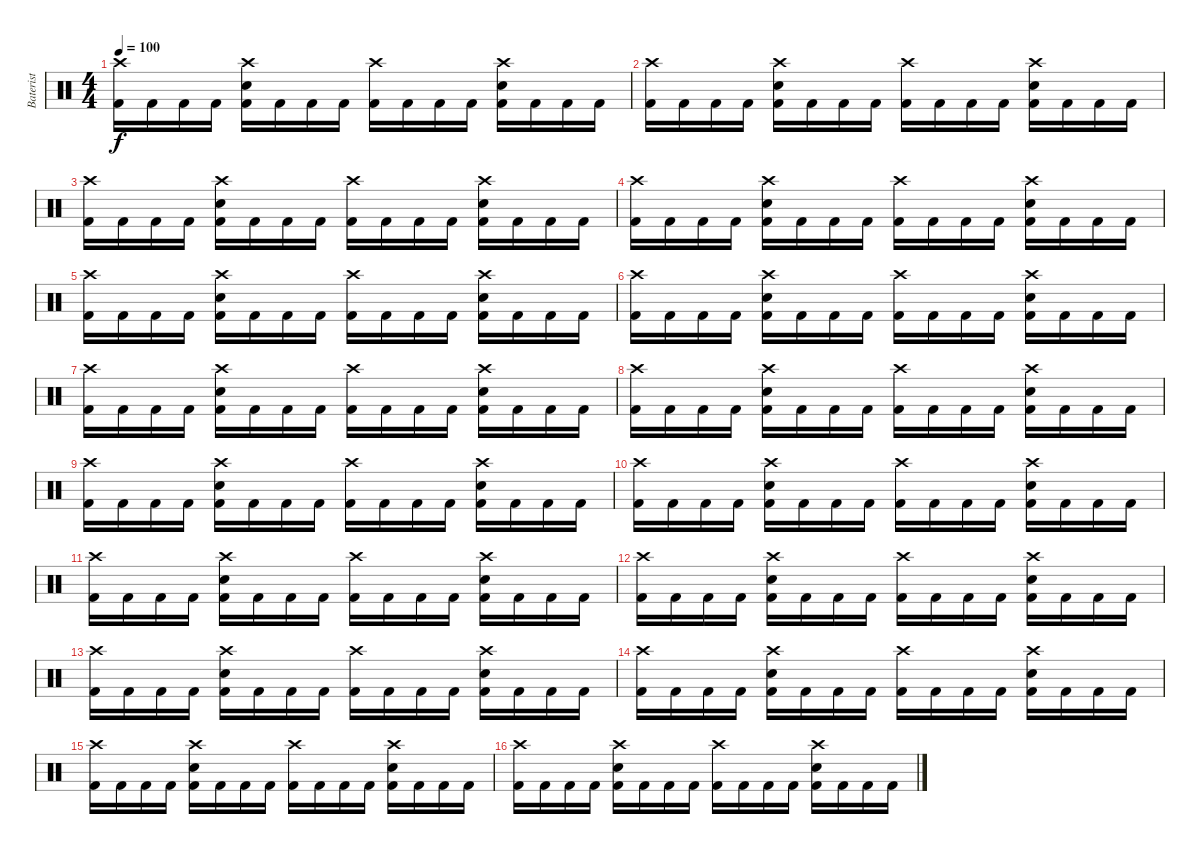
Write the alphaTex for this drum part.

\track ("Baterist" "Baterist") {instrument percussion}
\staff {score}
\articulation defaults
\ts (4 4)
\tempo 100
\clef neutral
\ks c
("Crash high (hit)" "Kick (hit) 2").16{dy f} "Kick (hit) 2".16 "Kick (hit) 2".16 "Kick (hit) 2".16 ("Crash high (hit)" "Electric Snare (hit)" "Kick (hit) 2").16 "Kick (hit) 2".16 "Kick (hit) 2".16 "Kick (hit) 2".16 ("Crash high (hit)" "Kick (hit) 2").16 "Kick (hit) 2".16 "Kick (hit) 2".16 "Kick (hit) 2".16 ("Crash high (hit)" "Electric Snare (hit)" "Kick (hit) 2").16 "Kick (hit) 2".16 "Kick (hit) 2".16 "Kick (hit) 2".16 |
("Crash high (hit)" "Kick (hit) 2").16 "Kick (hit) 2".16 "Kick (hit) 2".16 "Kick (hit) 2".16 ("Crash high (hit)" "Electric Snare (hit)" "Kick (hit) 2").16 "Kick (hit) 2".16 "Kick (hit) 2".16 "Kick (hit) 2".16 ("Crash high (hit)" "Kick (hit) 2").16 "Kick (hit) 2".16 "Kick (hit) 2".16 "Kick (hit) 2".16 ("Crash high (hit)" "Electric Snare (hit)" "Kick (hit) 2").16 "Kick (hit) 2".16 "Kick (hit) 2".16 "Kick (hit) 2".16 |
("Crash high (hit)" "Kick (hit) 2").16 "Kick (hit) 2".16 "Kick (hit) 2".16 "Kick (hit) 2".16 ("Crash high (hit)" "Electric Snare (hit)" "Kick (hit) 2").16 "Kick (hit) 2".16 "Kick (hit) 2".16 "Kick (hit) 2".16 ("Crash high (hit)" "Kick (hit) 2").16 "Kick (hit) 2".16 "Kick (hit) 2".16 "Kick (hit) 2".16 ("Crash high (hit)" "Electric Snare (hit)" "Kick (hit) 2").16 "Kick (hit) 2".16 "Kick (hit) 2".16 "Kick (hit) 2".16 |
("Crash high (hit)" "Kick (hit) 2").16 "Kick (hit) 2".16 "Kick (hit) 2".16 "Kick (hit) 2".16 ("Crash high (hit)" "Electric Snare (hit)" "Kick (hit) 2").16 "Kick (hit) 2".16 "Kick (hit) 2".16 "Kick (hit) 2".16 ("Crash high (hit)" "Kick (hit) 2").16 "Kick (hit) 2".16 "Kick (hit) 2".16 "Kick (hit) 2".16 ("Crash high (hit)" "Electric Snare (hit)" "Kick (hit) 2").16 "Kick (hit) 2".16 "Kick (hit) 2".16 "Kick (hit) 2".16 |
("Crash high (hit)" "Kick (hit) 2").16 "Kick (hit) 2".16 "Kick (hit) 2".16 "Kick (hit) 2".16 ("Crash high (hit)" "Electric Snare (hit)" "Kick (hit) 2").16 "Kick (hit) 2".16 "Kick (hit) 2".16 "Kick (hit) 2".16 ("Crash high (hit)" "Kick (hit) 2").16 "Kick (hit) 2".16 "Kick (hit) 2".16 "Kick (hit) 2".16 ("Crash high (hit)" "Electric Snare (hit)" "Kick (hit) 2").16 "Kick (hit) 2".16 "Kick (hit) 2".16 "Kick (hit) 2".16 |
("Crash high (hit)" "Kick (hit) 2").16 "Kick (hit) 2".16 "Kick (hit) 2".16 "Kick (hit) 2".16 ("Crash high (hit)" "Electric Snare (hit)" "Kick (hit) 2").16 "Kick (hit) 2".16 "Kick (hit) 2".16 "Kick (hit) 2".16 ("Crash high (hit)" "Kick (hit) 2").16 "Kick (hit) 2".16 "Kick (hit) 2".16 "Kick (hit) 2".16 ("Crash high (hit)" "Electric Snare (hit)" "Kick (hit) 2").16 "Kick (hit) 2".16 "Kick (hit) 2".16 "Kick (hit) 2".16 |
("Crash high (hit)" "Kick (hit) 2").16 "Kick (hit) 2".16 "Kick (hit) 2".16 "Kick (hit) 2".16 ("Crash high (hit)" "Electric Snare (hit)" "Kick (hit) 2").16 "Kick (hit) 2".16 "Kick (hit) 2".16 "Kick (hit) 2".16 ("Crash high (hit)" "Kick (hit) 2").16 "Kick (hit) 2".16 "Kick (hit) 2".16 "Kick (hit) 2".16 ("Crash high (hit)" "Electric Snare (hit)" "Kick (hit) 2").16 "Kick (hit) 2".16 "Kick (hit) 2".16 "Kick (hit) 2".16 |
("Crash high (hit)" "Kick (hit) 2").16 "Kick (hit) 2".16 "Kick (hit) 2".16 "Kick (hit) 2".16 ("Crash high (hit)" "Electric Snare (hit)" "Kick (hit) 2").16 "Kick (hit) 2".16 "Kick (hit) 2".16 "Kick (hit) 2".16 ("Crash high (hit)" "Kick (hit) 2").16 "Kick (hit) 2".16 "Kick (hit) 2".16 "Kick (hit) 2".16 ("Crash high (hit)" "Electric Snare (hit)" "Kick (hit) 2").16 "Kick (hit) 2".16 "Kick (hit) 2".16 "Kick (hit) 2".16 |
("Crash high (hit)" "Kick (hit) 2").16 "Kick (hit) 2".16 "Kick (hit) 2".16 "Kick (hit) 2".16 ("Crash high (hit)" "Electric Snare (hit)" "Kick (hit) 2").16 "Kick (hit) 2".16 "Kick (hit) 2".16 "Kick (hit) 2".16 ("Crash high (hit)" "Kick (hit) 2").16 "Kick (hit) 2".16 "Kick (hit) 2".16 "Kick (hit) 2".16 ("Crash high (hit)" "Electric Snare (hit)" "Kick (hit) 2").16 "Kick (hit) 2".16 "Kick (hit) 2".16 "Kick (hit) 2".16 |
("Crash high (hit)" "Kick (hit) 2").16 "Kick (hit) 2".16 "Kick (hit) 2".16 "Kick (hit) 2".16 ("Crash high (hit)" "Electric Snare (hit)" "Kick (hit) 2").16 "Kick (hit) 2".16 "Kick (hit) 2".16 "Kick (hit) 2".16 ("Crash high (hit)" "Kick (hit) 2").16 "Kick (hit) 2".16 "Kick (hit) 2".16 "Kick (hit) 2".16 ("Crash high (hit)" "Electric Snare (hit)" "Kick (hit) 2").16 "Kick (hit) 2".16 "Kick (hit) 2".16 "Kick (hit) 2".16 |
("Crash high (hit)" "Kick (hit) 2").16 "Kick (hit) 2".16 "Kick (hit) 2".16 "Kick (hit) 2".16 ("Crash high (hit)" "Electric Snare (hit)" "Kick (hit) 2").16 "Kick (hit) 2".16 "Kick (hit) 2".16 "Kick (hit) 2".16 ("Crash high (hit)" "Kick (hit) 2").16 "Kick (hit) 2".16 "Kick (hit) 2".16 "Kick (hit) 2".16 ("Crash high (hit)" "Electric Snare (hit)" "Kick (hit) 2").16 "Kick (hit) 2".16 "Kick (hit) 2".16 "Kick (hit) 2".16 |
("Crash high (hit)" "Kick (hit) 2").16 "Kick (hit) 2".16 "Kick (hit) 2".16 "Kick (hit) 2".16 ("Crash high (hit)" "Electric Snare (hit)" "Kick (hit) 2").16 "Kick (hit) 2".16 "Kick (hit) 2".16 "Kick (hit) 2".16 ("Crash high (hit)" "Kick (hit) 2").16 "Kick (hit) 2".16 "Kick (hit) 2".16 "Kick (hit) 2".16 ("Crash high (hit)" "Electric Snare (hit)" "Kick (hit) 2").16 "Kick (hit) 2".16 "Kick (hit) 2".16 "Kick (hit) 2".16 |
("Crash high (hit)" "Kick (hit) 2").16 "Kick (hit) 2".16 "Kick (hit) 2".16 "Kick (hit) 2".16 ("Crash high (hit)" "Electric Snare (hit)" "Kick (hit) 2").16 "Kick (hit) 2".16 "Kick (hit) 2".16 "Kick (hit) 2".16 ("Crash high (hit)" "Kick (hit) 2").16 "Kick (hit) 2".16 "Kick (hit) 2".16 "Kick (hit) 2".16 ("Crash high (hit)" "Electric Snare (hit)" "Kick (hit) 2").16 "Kick (hit) 2".16 "Kick (hit) 2".16 "Kick (hit) 2".16 |
("Crash high (hit)" "Kick (hit) 2").16 "Kick (hit) 2".16 "Kick (hit) 2".16 "Kick (hit) 2".16 ("Crash high (hit)" "Electric Snare (hit)" "Kick (hit) 2").16 "Kick (hit) 2".16 "Kick (hit) 2".16 "Kick (hit) 2".16 ("Crash high (hit)" "Kick (hit) 2").16 "Kick (hit) 2".16 "Kick (hit) 2".16 "Kick (hit) 2".16 ("Crash high (hit)" "Electric Snare (hit)" "Kick (hit) 2").16 "Kick (hit) 2".16 "Kick (hit) 2".16 "Kick (hit) 2".16 |
("Crash high (hit)" "Kick (hit) 2").16 "Kick (hit) 2".16 "Kick (hit) 2".16 "Kick (hit) 2".16 ("Crash high (hit)" "Electric Snare (hit)" "Kick (hit) 2").16 "Kick (hit) 2".16 "Kick (hit) 2".16 "Kick (hit) 2".16 ("Crash high (hit)" "Kick (hit) 2").16 "Kick (hit) 2".16 "Kick (hit) 2".16 "Kick (hit) 2".16 ("Crash high (hit)" "Electric Snare (hit)" "Kick (hit) 2").16 "Kick (hit) 2".16 "Kick (hit) 2".16 "Kick (hit) 2".16 |
("Crash high (hit)" "Kick (hit) 2").16 "Kick (hit) 2".16 "Kick (hit) 2".16 "Kick (hit) 2".16 ("Crash high (hit)" "Electric Snare (hit)" "Kick (hit) 2").16 "Kick (hit) 2".16 "Kick (hit) 2".16 "Kick (hit) 2".16 ("Crash high (hit)" "Kick (hit) 2").16 "Kick (hit) 2".16 "Kick (hit) 2".16 "Kick (hit) 2".16 ("Crash high (hit)" "Electric Snare (hit)" "Kick (hit) 2").16 "Kick (hit) 2".16 "Kick (hit) 2".16 "Kick (hit) 2".16
